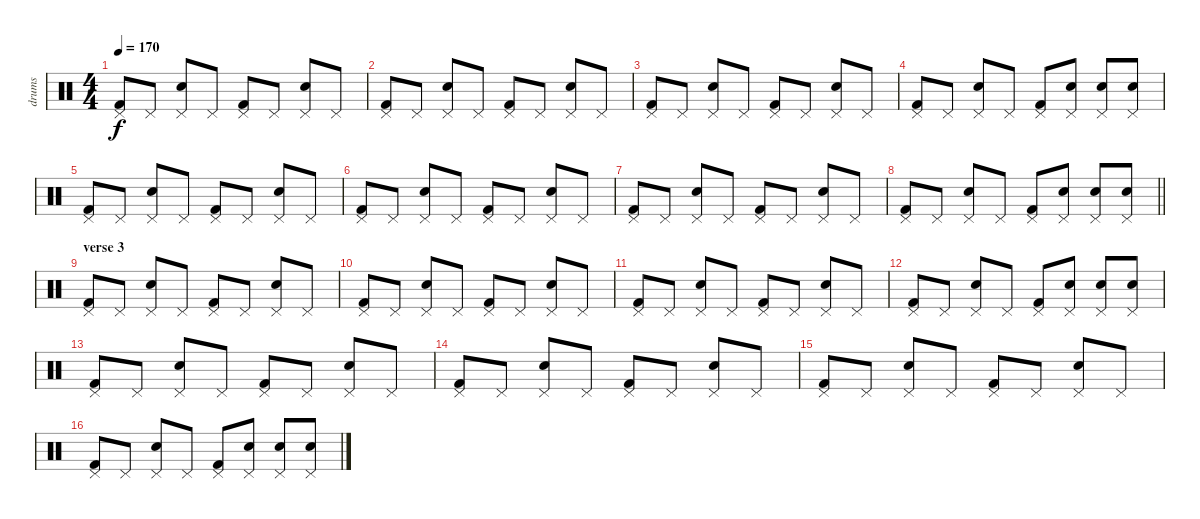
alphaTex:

\track ("drums" "drums") {instrument percussion}
\staff {score}
\articulation defaults
\ts (4 4)
\tempo 170
\clef neutral
\ks c
("Kick (hit) 2" "Pedal Hi-Hat (hit)").8{dy f} "Pedal Hi-Hat (hit)".8 ("Electric Snare (hit)" "Pedal Hi-Hat (hit)").8 "Pedal Hi-Hat (hit)".8 ("Kick (hit) 2" "Pedal Hi-Hat (hit)").8 "Pedal Hi-Hat (hit)".8 ("Electric Snare (hit)" "Pedal Hi-Hat (hit)").8 "Pedal Hi-Hat (hit)".8 |
("Kick (hit) 2" "Pedal Hi-Hat (hit)").8 "Pedal Hi-Hat (hit)".8 ("Electric Snare (hit)" "Pedal Hi-Hat (hit)").8 "Pedal Hi-Hat (hit)".8 ("Kick (hit) 2" "Pedal Hi-Hat (hit)").8 "Pedal Hi-Hat (hit)".8 ("Electric Snare (hit)" "Pedal Hi-Hat (hit)").8 "Pedal Hi-Hat (hit)".8 |
("Kick (hit) 2" "Pedal Hi-Hat (hit)").8 "Pedal Hi-Hat (hit)".8 ("Electric Snare (hit)" "Pedal Hi-Hat (hit)").8 "Pedal Hi-Hat (hit)".8 ("Kick (hit) 2" "Pedal Hi-Hat (hit)").8 "Pedal Hi-Hat (hit)".8 ("Electric Snare (hit)" "Pedal Hi-Hat (hit)").8 "Pedal Hi-Hat (hit)".8 |
("Kick (hit) 2" "Pedal Hi-Hat (hit)").8 "Pedal Hi-Hat (hit)".8 ("Electric Snare (hit)" "Pedal Hi-Hat (hit)").8 "Pedal Hi-Hat (hit)".8 ("Kick (hit) 2" "Pedal Hi-Hat (hit)").8 ("Electric Snare (hit)" "Pedal Hi-Hat (hit)").8 ("Electric Snare (hit)" "Pedal Hi-Hat (hit)").8 ("Electric Snare (hit)" "Pedal Hi-Hat (hit)").8 |
("Kick (hit) 2" "Pedal Hi-Hat (hit)").8 "Pedal Hi-Hat (hit)".8 ("Electric Snare (hit)" "Pedal Hi-Hat (hit)").8 "Pedal Hi-Hat (hit)".8 ("Kick (hit) 2" "Pedal Hi-Hat (hit)").8 "Pedal Hi-Hat (hit)".8 ("Electric Snare (hit)" "Pedal Hi-Hat (hit)").8 "Pedal Hi-Hat (hit)".8 |
("Kick (hit) 2" "Pedal Hi-Hat (hit)").8 "Pedal Hi-Hat (hit)".8 ("Electric Snare (hit)" "Pedal Hi-Hat (hit)").8 "Pedal Hi-Hat (hit)".8 ("Kick (hit) 2" "Pedal Hi-Hat (hit)").8 "Pedal Hi-Hat (hit)".8 ("Electric Snare (hit)" "Pedal Hi-Hat (hit)").8 "Pedal Hi-Hat (hit)".8 |
("Kick (hit) 2" "Pedal Hi-Hat (hit)").8 "Pedal Hi-Hat (hit)".8 ("Electric Snare (hit)" "Pedal Hi-Hat (hit)").8 "Pedal Hi-Hat (hit)".8 ("Kick (hit) 2" "Pedal Hi-Hat (hit)").8 "Pedal Hi-Hat (hit)".8 ("Electric Snare (hit)" "Pedal Hi-Hat (hit)").8 "Pedal Hi-Hat (hit)".8 |
\barLineRight lightlight
("Kick (hit) 2" "Pedal Hi-Hat (hit)").8 "Pedal Hi-Hat (hit)".8 ("Electric Snare (hit)" "Pedal Hi-Hat (hit)").8 "Pedal Hi-Hat (hit)".8 ("Kick (hit) 2" "Pedal Hi-Hat (hit)").8 ("Electric Snare (hit)" "Pedal Hi-Hat (hit)").8 ("Electric Snare (hit)" "Pedal Hi-Hat (hit)").8 ("Electric Snare (hit)" "Pedal Hi-Hat (hit)").8 |
\section ("" "verse 3")
("Kick (hit) 2" "Pedal Hi-Hat (hit)").8 "Pedal Hi-Hat (hit)".8 ("Electric Snare (hit)" "Pedal Hi-Hat (hit)").8 "Pedal Hi-Hat (hit)".8 ("Kick (hit) 2" "Pedal Hi-Hat (hit)").8 "Pedal Hi-Hat (hit)".8 ("Electric Snare (hit)" "Pedal Hi-Hat (hit)").8 "Pedal Hi-Hat (hit)".8 |
("Kick (hit) 2" "Pedal Hi-Hat (hit)").8 "Pedal Hi-Hat (hit)".8 ("Electric Snare (hit)" "Pedal Hi-Hat (hit)").8 "Pedal Hi-Hat (hit)".8 ("Kick (hit) 2" "Pedal Hi-Hat (hit)").8 "Pedal Hi-Hat (hit)".8 ("Electric Snare (hit)" "Pedal Hi-Hat (hit)").8 "Pedal Hi-Hat (hit)".8 |
("Kick (hit) 2" "Pedal Hi-Hat (hit)").8 "Pedal Hi-Hat (hit)".8 ("Electric Snare (hit)" "Pedal Hi-Hat (hit)").8 "Pedal Hi-Hat (hit)".8 ("Kick (hit) 2" "Pedal Hi-Hat (hit)").8 "Pedal Hi-Hat (hit)".8 ("Electric Snare (hit)" "Pedal Hi-Hat (hit)").8 "Pedal Hi-Hat (hit)".8 |
("Kick (hit) 2" "Pedal Hi-Hat (hit)").8 "Pedal Hi-Hat (hit)".8 ("Electric Snare (hit)" "Pedal Hi-Hat (hit)").8 "Pedal Hi-Hat (hit)".8 ("Kick (hit) 2" "Pedal Hi-Hat (hit)").8 ("Electric Snare (hit)" "Pedal Hi-Hat (hit)").8 ("Electric Snare (hit)" "Pedal Hi-Hat (hit)").8 ("Electric Snare (hit)" "Pedal Hi-Hat (hit)").8 |
("Kick (hit) 2" "Pedal Hi-Hat (hit)").8 "Pedal Hi-Hat (hit)".8 ("Electric Snare (hit)" "Pedal Hi-Hat (hit)").8 "Pedal Hi-Hat (hit)".8 ("Kick (hit) 2" "Pedal Hi-Hat (hit)").8 "Pedal Hi-Hat (hit)".8 ("Electric Snare (hit)" "Pedal Hi-Hat (hit)").8 "Pedal Hi-Hat (hit)".8 |
("Kick (hit) 2" "Pedal Hi-Hat (hit)").8 "Pedal Hi-Hat (hit)".8 ("Electric Snare (hit)" "Pedal Hi-Hat (hit)").8 "Pedal Hi-Hat (hit)".8 ("Kick (hit) 2" "Pedal Hi-Hat (hit)").8 "Pedal Hi-Hat (hit)".8 ("Electric Snare (hit)" "Pedal Hi-Hat (hit)").8 "Pedal Hi-Hat (hit)".8 |
("Kick (hit) 2" "Pedal Hi-Hat (hit)").8 "Pedal Hi-Hat (hit)".8 ("Electric Snare (hit)" "Pedal Hi-Hat (hit)").8 "Pedal Hi-Hat (hit)".8 ("Kick (hit) 2" "Pedal Hi-Hat (hit)").8 "Pedal Hi-Hat (hit)".8 ("Electric Snare (hit)" "Pedal Hi-Hat (hit)").8 "Pedal Hi-Hat (hit)".8 |
("Kick (hit) 2" "Pedal Hi-Hat (hit)").8 "Pedal Hi-Hat (hit)".8 ("Electric Snare (hit)" "Pedal Hi-Hat (hit)").8 "Pedal Hi-Hat (hit)".8 ("Kick (hit) 2" "Pedal Hi-Hat (hit)").8 ("Electric Snare (hit)" "Pedal Hi-Hat (hit)").8 ("Electric Snare (hit)" "Pedal Hi-Hat (hit)").8 ("Electric Snare (hit)" "Pedal Hi-Hat (hit)").8
